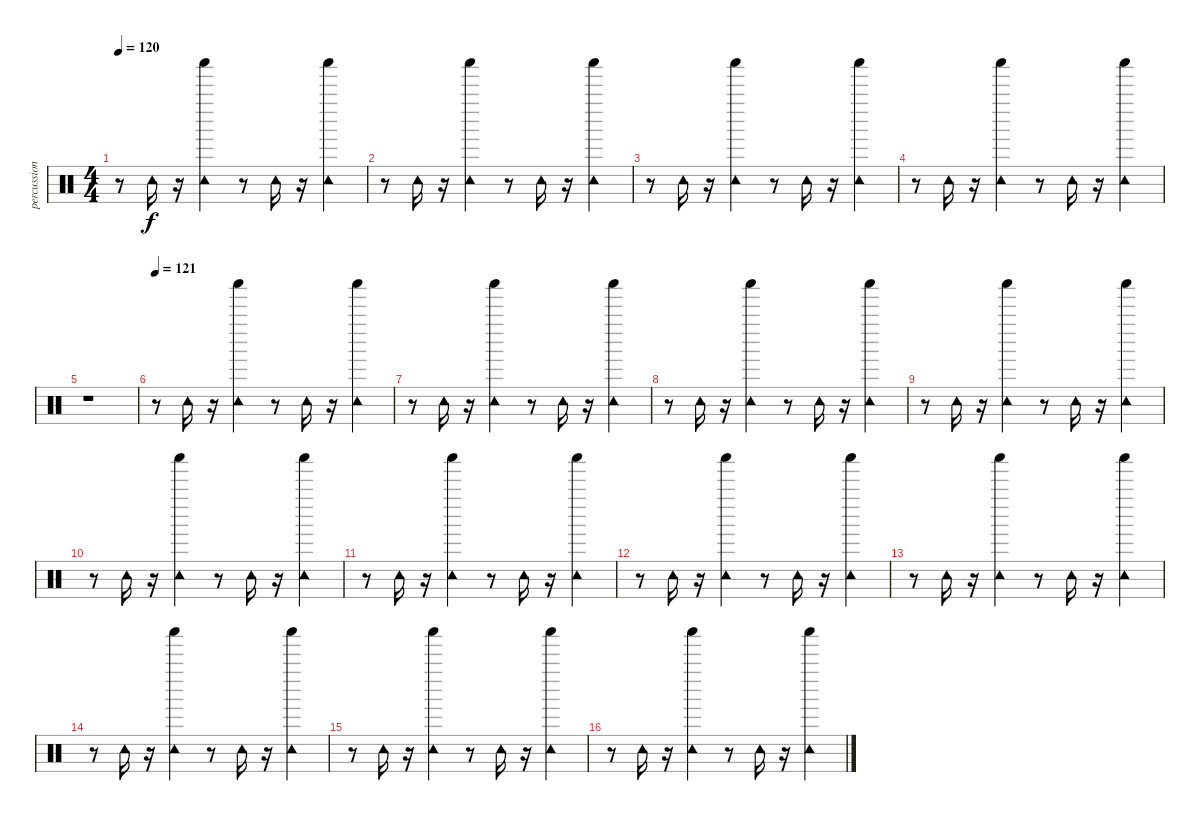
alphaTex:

\track ("percussion" "percussion") {instrument percussion}
\staff {score}
\articulation defaults
\ts (4 4)
\tempo 120
\clef neutral
\ks c
r.8{dy f} "Tambourine (hit)".16 r.16 ("Tambourine (hit)" "Shaker (hit)").4 r.8 "Tambourine (hit)".16 r.16 ("Tambourine (hit)" "Shaker (hit)").4 |
r.8 "Tambourine (hit)".16 r.16 ("Tambourine (hit)" "Shaker (hit)").4 r.8 "Tambourine (hit)".16 r.16 ("Tambourine (hit)" "Shaker (hit)").4 |
r.8 "Tambourine (hit)".16 r.16 ("Tambourine (hit)" "Shaker (hit)").4 r.8 "Tambourine (hit)".16 r.16 ("Tambourine (hit)" "Shaker (hit)").4 |
r.8 "Tambourine (hit)".16 r.16 ("Tambourine (hit)" "Shaker (hit)").4 r.8 "Tambourine (hit)".16 r.16 ("Tambourine (hit)" "Shaker (hit)").4 |
r.1 |
\tempo 121
r.8 "Tambourine (hit)".16 r.16 ("Tambourine (hit)" "Shaker (hit)").4 r.8 "Tambourine (hit)".16 r.16 ("Tambourine (hit)" "Shaker (hit)").4 |
r.8 "Tambourine (hit)".16 r.16 ("Tambourine (hit)" "Shaker (hit)").4 r.8 "Tambourine (hit)".16 r.16 ("Tambourine (hit)" "Shaker (hit)").4 |
r.8 "Tambourine (hit)".16 r.16 ("Tambourine (hit)" "Shaker (hit)").4 r.8 "Tambourine (hit)".16 r.16 ("Tambourine (hit)" "Shaker (hit)").4 |
r.8 "Tambourine (hit)".16 r.16 ("Tambourine (hit)" "Shaker (hit)").4 r.8 "Tambourine (hit)".16 r.16 ("Tambourine (hit)" "Shaker (hit)").4 |
r.8 "Tambourine (hit)".16 r.16 ("Tambourine (hit)" "Shaker (hit)").4 r.8 "Tambourine (hit)".16 r.16 ("Tambourine (hit)" "Shaker (hit)").4 |
r.8 "Tambourine (hit)".16 r.16 ("Tambourine (hit)" "Shaker (hit)").4 r.8 "Tambourine (hit)".16 r.16 ("Tambourine (hit)" "Shaker (hit)").4 |
r.8 "Tambourine (hit)".16 r.16 ("Tambourine (hit)" "Shaker (hit)").4 r.8 "Tambourine (hit)".16 r.16 ("Tambourine (hit)" "Shaker (hit)").4 |
r.8 "Tambourine (hit)".16 r.16 ("Tambourine (hit)" "Shaker (hit)").4 r.8 "Tambourine (hit)".16 r.16 ("Tambourine (hit)" "Shaker (hit)").4 |
r.8 "Tambourine (hit)".16 r.16 ("Tambourine (hit)" "Shaker (hit)").4 r.8 "Tambourine (hit)".16 r.16 ("Tambourine (hit)" "Shaker (hit)").4 |
r.8 "Tambourine (hit)".16 r.16 ("Tambourine (hit)" "Shaker (hit)").4 r.8 "Tambourine (hit)".16 r.16 ("Tambourine (hit)" "Shaker (hit)").4 |
r.8 "Tambourine (hit)".16 r.16 ("Tambourine (hit)" "Shaker (hit)").4 r.8 "Tambourine (hit)".16 r.16 ("Tambourine (hit)" "Shaker (hit)").4
